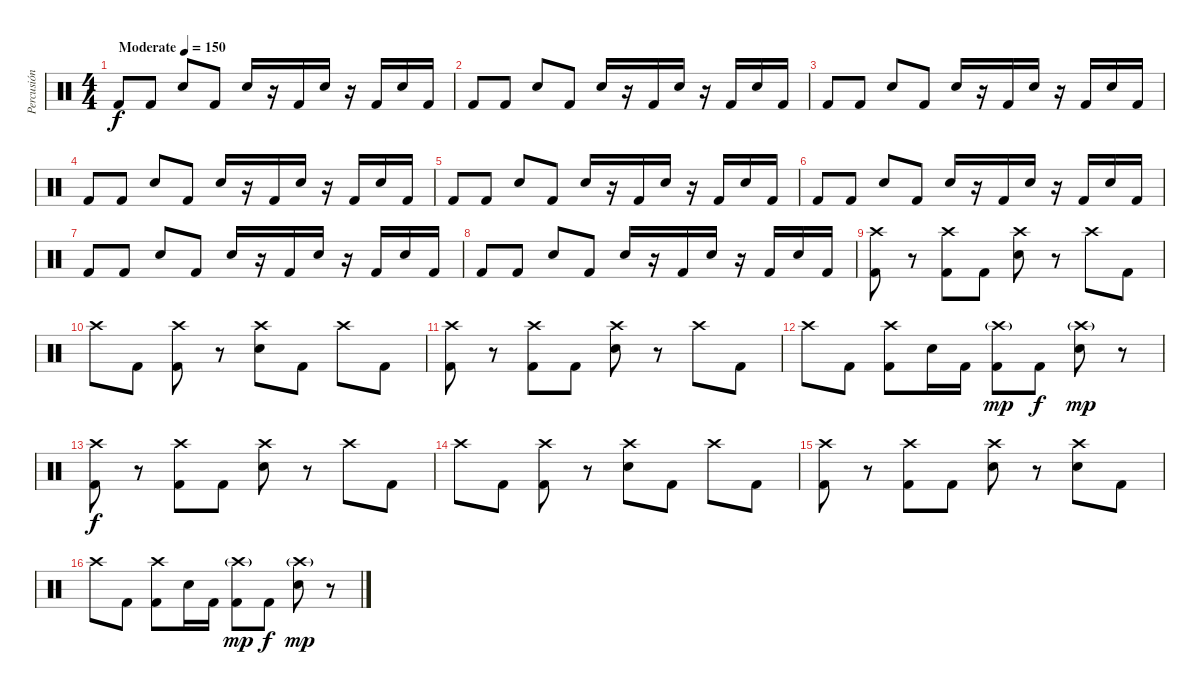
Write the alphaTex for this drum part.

\track ("Percusión" "Percusión") {instrument percussion}
\staff {score}
\articulation defaults
\ts (4 4)
\tempo (150 "Moderate")
\clef neutral
\ks c "Kick (hit) 2".8{dy f volume 0} "Kick (hit) 2".8{volume 16} "Snare (hit) 2".8 "Kick (hit) 2".8 "Snare (hit) 2".16
r.16 "Kick (hit) 2".16 "Snare (hit) 2".16 r.16 "Kick (hit) 2".16 "Snare (hit) 2".16 "Kick (hit) 2".16 |
"Kick (hit) 2".8 "Kick (hit) 2".8 "Snare (hit) 2".8 "Kick (hit) 2".8 "Snare (hit) 2".16 r.16 "Kick (hit) 2".16 "Snare (hit) 2".16 r.16 "Kick (hit) 2".16 "Snare (hit) 2".16 "Kick (hit) 2".16 |
"Kick (hit) 2".8 "Kick (hit) 2".8 "Snare (hit) 2".8 "Kick (hit) 2".8 "Snare (hit) 2".16 r.16 "Kick (hit) 2".16 "Snare (hit) 2".16 r.16 "Kick (hit) 2".16 "Snare (hit) 2".16 "Kick (hit) 2".16 |
"Kick (hit) 2".8 "Kick (hit) 2".8 "Snare (hit) 2".8 "Kick (hit) 2".8 "Snare (hit) 2".16 r.16 "Kick (hit) 2".16 "Snare (hit) 2".16 r.16 "Kick (hit) 2".16 "Snare (hit) 2".16 "Kick (hit) 2".16 |
"Kick (hit) 2".8 "Kick (hit) 2".8 "Snare (hit) 2".8 "Kick (hit) 2".8 "Snare (hit) 2".16 r.16 "Kick (hit) 2".16 "Snare (hit) 2".16 r.16 "Kick (hit) 2".16 "Snare (hit) 2".16 "Kick (hit) 2".16 |
"Kick (hit) 2".8 "Kick (hit) 2".8 "Snare (hit) 2".8 "Kick (hit) 2".8 "Snare (hit) 2".16 r.16 "Kick (hit) 2".16 "Snare (hit) 2".16 r.16 "Kick (hit) 2".16 "Snare (hit) 2".16 "Kick (hit) 2".16 |
"Kick (hit) 2".8 "Kick (hit) 2".8 "Snare (hit) 2".8 "Kick (hit) 2".8 "Snare (hit) 2".16 r.16 "Kick (hit) 2".16 "Snare (hit) 2".16 r.16 "Kick (hit) 2".16 "Snare (hit) 2".16 "Kick (hit) 2".16 |
"Kick (hit) 2".8 "Kick (hit) 2".8 "Snare (hit) 2".8 "Kick (hit) 2".8 "Snare (hit) 2".16 r.16 "Kick (hit) 2".16 "Snare (hit) 2".16 r.16 "Kick (hit) 2".16 "Snare (hit) 2".16 "Kick (hit) 2".16 |
("Crash high (hit)" "Kick (hit) 2").8 r.8 ("Crash high (hit)" "Kick (hit) 2").8 "Kick (hit) 2".8 ("Crash high (hit)" "Snare (hit) 2").8 r.8 "Crash high (hit)".8 "Kick (hit) 2".8 |
"Crash high (hit)".8 "Kick (hit) 2".8 ("Crash high (hit)" "Kick (hit) 2").8 r.8 ("Crash high (hit)" "Snare (hit) 2").8 "Kick (hit) 2".8 "Crash high (hit)".8 "Kick (hit) 2".8 |
("Crash high (hit)" "Kick (hit) 2").8 r.8 ("Crash high (hit)" "Kick (hit) 2").8 "Kick (hit) 2".8 ("Crash high (hit)" "Snare (hit) 2").8 r.8 "Crash high (hit)".8 "Kick (hit) 2".8 |
"Crash high (hit)".8 "Kick (hit) 2".8 ("Crash high (hit)" "Kick (hit) 2").8 "Snare (hit) 2".16 "Kick (hit) 2".16 ("Crash high (hit)"{g} "Kick (hit) 2").8{dy mp} "Kick (hit) 2".8{dy f} ("Crash high (hit)"{g} "Snare (hit) 2").8{dy mp} r.8 |
("Crash high (hit)" "Kick (hit) 2").8{dy f} r.8 ("Crash high (hit)" "Kick (hit) 2").8 "Kick (hit) 2".8 ("Crash high (hit)" "Snare (hit) 2").8 r.8 "Crash high (hit)".8 "Kick (hit) 2".8 |
"Crash high (hit)".8 "Kick (hit) 2".8 ("Crash high (hit)" "Kick (hit) 2").8 r.8 ("Crash high (hit)" "Snare (hit) 2").8 "Kick (hit) 2".8 "Crash high (hit)".8 "Kick (hit) 2".8 |
("Crash high (hit)" "Kick (hit) 2").8 r.8 ("Crash high (hit)" "Kick (hit) 2").8 "Kick (hit) 2".8 ("Crash high (hit)" "Snare (hit) 2").8 r.8 ("Crash high (hit)" "Snare (hit) 2").8 "Kick (hit) 2".8 |
"Crash high (hit)".8 "Kick (hit) 2".8 ("Crash high (hit)" "Kick (hit) 2").8 "Snare (hit) 2".16 "Kick (hit) 2".16 ("Crash high (hit)"{g} "Kick (hit) 2").8{dy mp} "Kick (hit) 2".8{dy f} ("Crash high (hit)"{g} "Snare (hit) 2").8{dy mp} r.8
